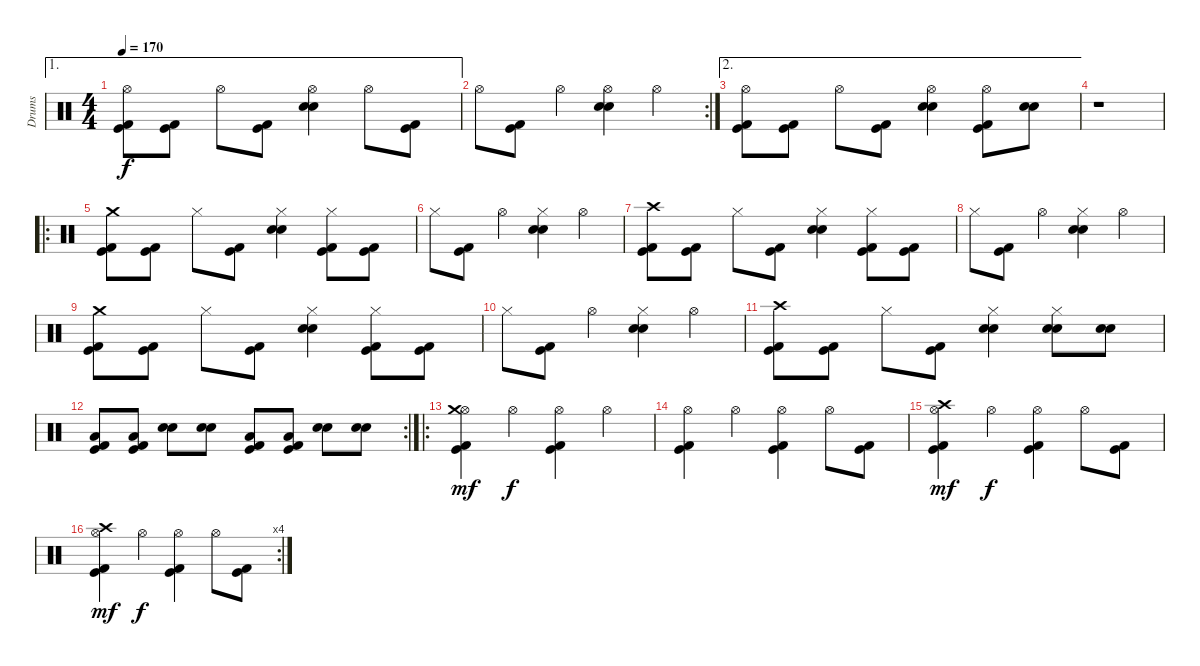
\track ("Drums" "Drums") {instrument percussion}
\staff {score}
\articulation defaults
\ae 1
\ts (4 4)
\tempo 170
\clef neutral
\ks c
("Hi-Hat (open)" "Kick (hit) 2" "Kick (hit)").8{dy f} ("Kick (hit) 2" "Kick (hit)").8 "Hi-Hat (open)".8 ("Kick (hit) 2" "Kick (hit)").8 ("Hi-Hat (open)" "Electric Snare (hit)" "Snare (hit) 2").4 "Hi-Hat (open)".8 ("Kick (hit) 2" "Kick (hit)").8 |
\rc 2 "Hi-Hat (open)".8
("Kick (hit) 2" "Kick (hit)").8 "Hi-Hat (open)".4 ("Hi-Hat (open)" "Electric Snare (hit)" "Snare (hit) 2").4 "Hi-Hat (open)".4 |
\ae 2
("Hi-Hat (open)" "Kick (hit) 2" "Kick (hit)").8 ("Kick (hit) 2" "Kick (hit)").8 "Hi-Hat (open)".8 ("Kick (hit) 2" "Kick (hit)").8 ("Hi-Hat (open)" "Electric Snare (hit)" "Snare (hit) 2").4 ("Hi-Hat (open)" "Kick (hit) 2" "Kick (hit)").8 ("Electric Snare (hit)" "Snare (hit) 2").8 |
r.1 |
\ro
("Crash medium (hit)" "Kick (hit) 2" "Kick (hit)").8 ("Kick (hit) 2" "Kick (hit)").8 "Hi-Hat (closed)".8 ("Kick (hit) 2" "Kick (hit)").8 ("Hi-Hat (closed)" "Electric Snare (hit)" "Snare (hit) 2").4 ("Hi-Hat (closed)" "Kick (hit) 2" "Kick (hit)").8 ("Kick (hit) 2" "Kick (hit)").8 |
"Hi-Hat (closed)".8 ("Kick (hit) 2" "Kick (hit)").8 "Hi-Hat (open)".4 ("Hi-Hat (closed)" "Electric Snare (hit)" "Snare (hit) 2").4 "Hi-Hat (open)".4 |
("Crash high (hit)" "Kick (hit) 2" "Kick (hit)").8 ("Kick (hit) 2" "Kick (hit)").8 "Hi-Hat (closed)".8 ("Kick (hit) 2" "Kick (hit)").8 ("Hi-Hat (closed)" "Electric Snare (hit)" "Snare (hit) 2").4 ("Hi-Hat (closed)" "Kick (hit) 2" "Kick (hit)").8 ("Kick (hit) 2" "Kick (hit)").8 |
"Hi-Hat (closed)".8 ("Kick (hit) 2" "Kick (hit)").8 "Hi-Hat (open)".4 ("Hi-Hat (closed)" "Electric Snare (hit)" "Snare (hit) 2").4 "Hi-Hat (open)".4 |
("Crash medium (hit)" "Kick (hit) 2" "Kick (hit)").8 ("Kick (hit) 2" "Kick (hit)").8 "Hi-Hat (closed)".8 ("Kick (hit) 2" "Kick (hit)").8 ("Hi-Hat (closed)" "Electric Snare (hit)" "Snare (hit) 2").4 ("Hi-Hat (closed)" "Kick (hit) 2" "Kick (hit)").8 ("Kick (hit) 2" "Kick (hit)").8 |
"Hi-Hat (closed)".8 ("Kick (hit) 2" "Kick (hit)").8 "Hi-Hat (open)".4 ("Hi-Hat (closed)" "Electric Snare (hit)" "Snare (hit) 2").4 "Hi-Hat (open)".4 |
("Crash high (hit)" "Kick (hit) 2" "Kick (hit)").8 ("Kick (hit) 2" "Kick (hit)").8 "Hi-Hat (closed)".8 ("Kick (hit) 2" "Kick (hit)").8 ("Hi-Hat (closed)" "Electric Snare (hit)" "Snare (hit) 2").4 ("Hi-Hat (closed)" "Electric Snare (hit)" "Snare (hit) 2").8 ("Electric Snare (hit)" "Snare (hit) 2").8 |
\rc 2
("Low Tom (hit)" "Kick (hit) 2" "Kick (hit)").8 ("Low Tom (hit)" "Kick (hit) 2" "Kick (hit)").8 ("Electric Snare (hit)" "Snare (hit) 2").8 ("Electric Snare (hit)" "Snare (hit) 2").8 ("Low Tom (hit)" "Kick (hit) 2" "Kick (hit)").8 ("Low Tom (hit)" "Kick (hit) 2" "Kick (hit)").8 ("Electric Snare (hit)" "Snare (hit) 2").8 ("Electric Snare (hit)" "Snare (hit) 2").8 |
\ro
("Hi-Hat (open)" "Crash medium (hit)" "Kick (hit) 2" "Kick (hit)").4{dy mf} "Hi-Hat (open)".4{dy f} ("Hi-Hat (open)" "Kick (hit) 2" "Kick (hit)").4 "Hi-Hat (open)".4 |
("Hi-Hat (open)" "Kick (hit) 2" "Kick (hit)").4 "Hi-Hat (open)".4 ("Hi-Hat (open)" "Kick (hit) 2" "Kick (hit)").4 "Hi-Hat (open)".8 ("Kick (hit) 2" "Kick (hit)").8 |
("Hi-Hat (open)" "Crash high (hit)" "Kick (hit) 2" "Kick (hit)").4{dy mf} "Hi-Hat (open)".4{dy f} ("Hi-Hat (open)" "Kick (hit) 2" "Kick (hit)").4 "Hi-Hat (open)".8 ("Kick (hit) 2" "Kick (hit)").8 |
\rc 4
("Hi-Hat (open)" "Crash high (hit)" "Kick (hit) 2" "Kick (hit)").4{dy mf} "Hi-Hat (open)".4{dy f} ("Hi-Hat (open)" "Kick (hit) 2" "Kick (hit)").4 "Hi-Hat (open)".8 ("Kick (hit) 2" "Kick (hit)").8
